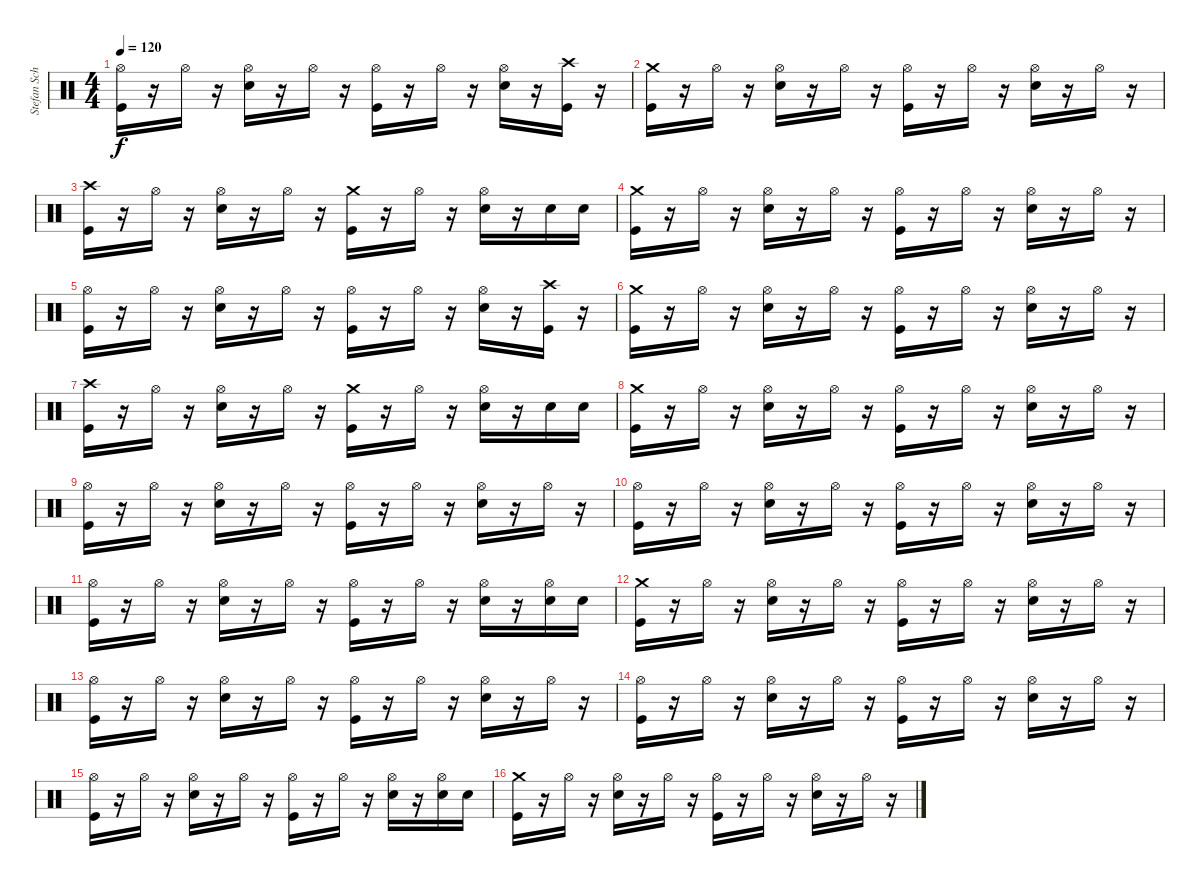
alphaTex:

\track ("Stefan Schwarzmann" "Stefan Sch") {instrument percussion}
\staff {score}
\articulation defaults
\ts (4 4)
\tempo 120
\clef neutral
\ks c
("Kick (hit)" "Hi-Hat (open)").16{dy f} r.16 "Hi-Hat (open)".16 r.16 ("Snare (hit) 2" "Hi-Hat (open)").16 r.16 "Hi-Hat (open)".16 r.16 ("Kick (hit)" "Hi-Hat (open)").16 r.16 "Hi-Hat (open)".16 r.16 ("Snare (hit) 2" "Hi-Hat (open)").16 r.16 ("Crash high (hit)" "Kick (hit)").16 r.16 |
("Kick (hit)" "Crash medium (hit)").16 r.16 "Hi-Hat (open)".16 r.16 ("Snare (hit) 2" "Hi-Hat (open)").16 r.16 "Hi-Hat (open)".16 r.16 ("Kick (hit)" "Hi-Hat (open)").16 r.16 "Hi-Hat (open)".16 r.16 ("Snare (hit) 2" "Hi-Hat (open)").16 r.16 "Hi-Hat (open)".16 r.16 |
("Kick (hit)" "Crash high (hit)").16 r.16 "Hi-Hat (open)".16 r.16 ("Snare (hit) 2" "Hi-Hat (open)").16 r.16 "Hi-Hat (open)".16 r.16 ("Kick (hit)" "Crash medium (hit)").16 r.16 "Hi-Hat (open)".16 r.16 ("Snare (hit) 2" "Hi-Hat (open)").16 r.16 "Snare (hit) 2".16 "Snare (hit) 2".16 |
("Kick (hit)" "Crash medium (hit)").16 r.16 "Hi-Hat (open)".16 r.16 ("Snare (hit) 2" "Hi-Hat (open)").16 r.16 "Hi-Hat (open)".16 r.16 ("Kick (hit)" "Hi-Hat (open)").16 r.16 "Hi-Hat (open)".16 r.16 ("Snare (hit) 2" "Hi-Hat (open)").16 r.16 "Hi-Hat (open)".16 r.16 |
("Kick (hit)" "Hi-Hat (open)").16 r.16 "Hi-Hat (open)".16 r.16 ("Snare (hit) 2" "Hi-Hat (open)").16 r.16 "Hi-Hat (open)".16 r.16 ("Kick (hit)" "Hi-Hat (open)").16 r.16 "Hi-Hat (open)".16 r.16 ("Snare (hit) 2" "Hi-Hat (open)").16 r.16 ("Crash high (hit)" "Kick (hit)").16 r.16 |
("Kick (hit)" "Crash medium (hit)").16 r.16 "Hi-Hat (open)".16 r.16 ("Snare (hit) 2" "Hi-Hat (open)").16 r.16 "Hi-Hat (open)".16 r.16 ("Kick (hit)" "Hi-Hat (open)").16 r.16 "Hi-Hat (open)".16 r.16 ("Snare (hit) 2" "Hi-Hat (open)").16 r.16 "Hi-Hat (open)".16 r.16 |
("Kick (hit)" "Crash high (hit)").16 r.16 "Hi-Hat (open)".16 r.16 ("Snare (hit) 2" "Hi-Hat (open)").16 r.16 "Hi-Hat (open)".16 r.16 ("Kick (hit)" "Crash medium (hit)").16 r.16 "Hi-Hat (open)".16 r.16 ("Snare (hit) 2" "Hi-Hat (open)").16 r.16 "Snare (hit) 2".16 "Snare (hit) 2".16 |
("Kick (hit)" "Crash medium (hit)").16 r.16 "Hi-Hat (open)".16 r.16 ("Snare (hit) 2" "Hi-Hat (open)").16 r.16 "Hi-Hat (open)".16 r.16 ("Kick (hit)" "Hi-Hat (open)").16 r.16 "Hi-Hat (open)".16 r.16 ("Snare (hit) 2" "Hi-Hat (open)").16 r.16 "Hi-Hat (open)".16 r.16 |
("Kick (hit)" "Hi-Hat (open)").16 r.16 "Hi-Hat (open)".16 r.16 ("Snare (hit) 2" "Hi-Hat (open)").16 r.16 "Hi-Hat (open)".16 r.16 ("Kick (hit)" "Hi-Hat (open)").16 r.16 "Hi-Hat (open)".16 r.16 ("Snare (hit) 2" "Hi-Hat (open)").16 r.16 "Hi-Hat (open)".16 r.16 |
("Kick (hit)" "Hi-Hat (open)").16 r.16 "Hi-Hat (open)".16 r.16 ("Snare (hit) 2" "Hi-Hat (open)").16 r.16 "Hi-Hat (open)".16 r.16 ("Kick (hit)" "Hi-Hat (open)").16 r.16 "Hi-Hat (open)".16 r.16 ("Snare (hit) 2" "Hi-Hat (open)").16 r.16 "Hi-Hat (open)".16 r.16 |
("Kick (hit)" "Hi-Hat (open)").16 r.16 "Hi-Hat (open)".16 r.16 ("Snare (hit) 2" "Hi-Hat (open)").16 r.16 "Hi-Hat (open)".16 r.16 ("Kick (hit)" "Hi-Hat (open)").16 r.16 "Hi-Hat (open)".16 r.16 ("Snare (hit) 2" "Hi-Hat (open)").16 r.16 ("Hi-Hat (open)" "Snare (hit) 2").16 "Snare (hit) 2".16 |
("Kick (hit)" "Crash medium (hit)").16 r.16 "Hi-Hat (open)".16 r.16 ("Snare (hit) 2" "Hi-Hat (open)").16 r.16 "Hi-Hat (open)".16 r.16 ("Kick (hit)" "Hi-Hat (open)").16 r.16 "Hi-Hat (open)".16 r.16 ("Snare (hit) 2" "Hi-Hat (open)").16 r.16 "Hi-Hat (open)".16 r.16 |
("Kick (hit)" "Hi-Hat (open)").16 r.16 "Hi-Hat (open)".16 r.16 ("Snare (hit) 2" "Hi-Hat (open)").16 r.16 "Hi-Hat (open)".16 r.16 ("Kick (hit)" "Hi-Hat (open)").16 r.16 "Hi-Hat (open)".16 r.16 ("Snare (hit) 2" "Hi-Hat (open)").16 r.16 "Hi-Hat (open)".16 r.16 |
("Kick (hit)" "Hi-Hat (open)").16 r.16 "Hi-Hat (open)".16 r.16 ("Snare (hit) 2" "Hi-Hat (open)").16 r.16 "Hi-Hat (open)".16 r.16 ("Kick (hit)" "Hi-Hat (open)").16 r.16 "Hi-Hat (open)".16 r.16 ("Snare (hit) 2" "Hi-Hat (open)").16 r.16 "Hi-Hat (open)".16 r.16 |
("Kick (hit)" "Hi-Hat (open)").16 r.16 "Hi-Hat (open)".16 r.16 ("Snare (hit) 2" "Hi-Hat (open)").16 r.16 "Hi-Hat (open)".16 r.16 ("Kick (hit)" "Hi-Hat (open)").16 r.16 "Hi-Hat (open)".16 r.16 ("Snare (hit) 2" "Hi-Hat (open)").16 r.16 ("Hi-Hat (open)" "Snare (hit) 2").16 "Snare (hit) 2".16 |
("Kick (hit)" "Crash medium (hit)").16 r.16 "Hi-Hat (open)".16 r.16 ("Snare (hit) 2" "Hi-Hat (open)").16 r.16 "Hi-Hat (open)".16 r.16 ("Kick (hit)" "Hi-Hat (open)").16 r.16 "Hi-Hat (open)".16 r.16 ("Snare (hit) 2" "Hi-Hat (open)").16 r.16 "Hi-Hat (open)".16 r.16
